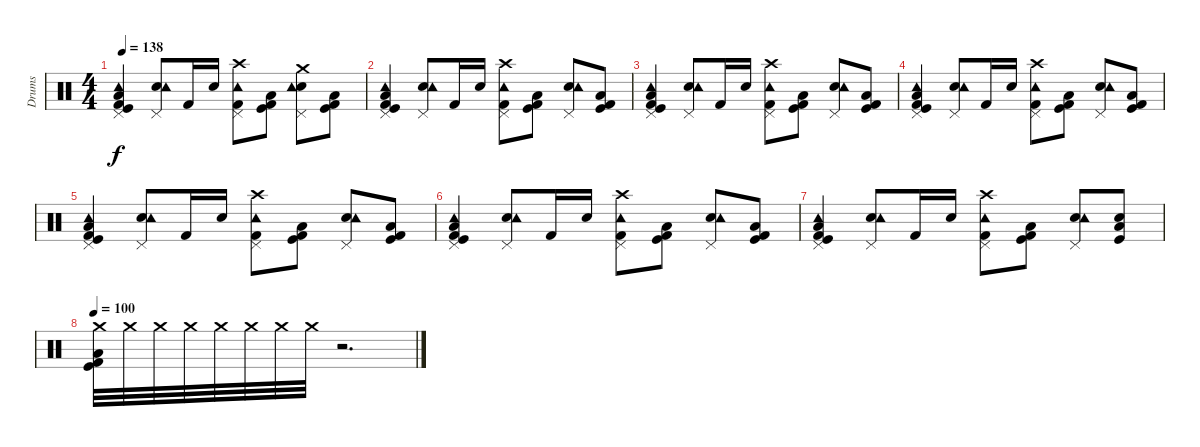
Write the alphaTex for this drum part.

\track ("Drums" "Drums") {instrument percussion}
\staff {score}
\articulation defaults
\ts (4 4)
\tempo 138
\clef neutral
\ks c
("Pedal Hi-Hat (hit)" "Kick (hit) 2" "Kick (hit)" "Low Floor Tom (hit)" "Tambourine (hit)").4{dy f} ("Pedal Hi-Hat (hit)" "Electric Snare (hit)" "Tambourine (hit)").8 "Kick (hit) 2".16 "Electric Snare (hit)".16 ("Crash high (hit)" "Pedal Hi-Hat (hit)" "Kick (hit) 2" "Tambourine (hit)").8 ("Kick (hit) 2" "Kick (hit)" "Low Floor Tom (hit)").8 ("Crash medium (hit)" "Pedal Hi-Hat (hit)" "Electric Snare (hit)" "Tambourine (hit)").8 ("Kick (hit) 2" "Low Floor Tom (hit)" "Kick (hit)").8 |
("Pedal Hi-Hat (hit)" "Kick (hit) 2" "Kick (hit)" "Low Floor Tom (hit)" "Tambourine (hit)").4 ("Pedal Hi-Hat (hit)" "Electric Snare (hit)" "Tambourine (hit)").8 "Kick (hit) 2".16 "Electric Snare (hit)".16 ("Crash high (hit)" "Pedal Hi-Hat (hit)" "Kick (hit) 2" "Tambourine (hit)").8 ("Kick (hit) 2" "Kick (hit)" "Low Floor Tom (hit)").8 ("Pedal Hi-Hat (hit)" "Electric Snare (hit)" "Tambourine (hit)").8 ("Kick (hit) 2" "Low Floor Tom (hit)" "Kick (hit)").8 |
("Pedal Hi-Hat (hit)" "Kick (hit) 2" "Kick (hit)" "Low Floor Tom (hit)" "Tambourine (hit)").4 ("Pedal Hi-Hat (hit)" "Electric Snare (hit)" "Tambourine (hit)").8 "Kick (hit) 2".16 "Electric Snare (hit)".16 ("Crash high (hit)" "Pedal Hi-Hat (hit)" "Kick (hit) 2" "Tambourine (hit)").8 ("Kick (hit) 2" "Kick (hit)" "Low Floor Tom (hit)").8 ("Pedal Hi-Hat (hit)" "Electric Snare (hit)" "Tambourine (hit)").8 ("Kick (hit) 2" "Low Floor Tom (hit)" "Kick (hit)").8 |
("Pedal Hi-Hat (hit)" "Kick (hit) 2" "Kick (hit)" "Low Floor Tom (hit)" "Tambourine (hit)").4 ("Pedal Hi-Hat (hit)" "Electric Snare (hit)" "Tambourine (hit)").8 "Kick (hit) 2".16 "Electric Snare (hit)".16 ("Crash high (hit)" "Pedal Hi-Hat (hit)" "Kick (hit) 2" "Tambourine (hit)").8 ("Kick (hit) 2" "Kick (hit)" "Low Floor Tom (hit)").8 ("Pedal Hi-Hat (hit)" "Electric Snare (hit)" "Tambourine (hit)").8 ("Kick (hit) 2" "Low Floor Tom (hit)" "Kick (hit)").8 |
("Pedal Hi-Hat (hit)" "Kick (hit) 2" "Kick (hit)" "Low Floor Tom (hit)" "Tambourine (hit)").4 ("Pedal Hi-Hat (hit)" "Electric Snare (hit)" "Tambourine (hit)").8 "Kick (hit) 2".16 "Electric Snare (hit)".16 ("Crash high (hit)" "Pedal Hi-Hat (hit)" "Kick (hit) 2" "Tambourine (hit)").8 ("Kick (hit) 2" "Kick (hit)" "Low Floor Tom (hit)").8 ("Pedal Hi-Hat (hit)" "Electric Snare (hit)" "Tambourine (hit)").8 ("Kick (hit) 2" "Low Floor Tom (hit)" "Kick (hit)").8 |
("Pedal Hi-Hat (hit)" "Kick (hit) 2" "Kick (hit)" "Low Floor Tom (hit)" "Tambourine (hit)").4 ("Pedal Hi-Hat (hit)" "Electric Snare (hit)" "Tambourine (hit)").8 "Kick (hit) 2".16 "Electric Snare (hit)".16 ("Crash high (hit)" "Pedal Hi-Hat (hit)" "Kick (hit) 2" "Tambourine (hit)").8 ("Kick (hit) 2" "Kick (hit)" "Low Floor Tom (hit)").8 ("Pedal Hi-Hat (hit)" "Electric Snare (hit)" "Tambourine (hit)").8 ("Kick (hit) 2" "Low Floor Tom (hit)" "Kick (hit)").8 |
("Pedal Hi-Hat (hit)" "Kick (hit) 2" "Kick (hit)" "Low Floor Tom (hit)" "Tambourine (hit)").4 ("Pedal Hi-Hat (hit)" "Electric Snare (hit)" "Tambourine (hit)").8 "Kick (hit) 2".16 "Electric Snare (hit)".16 ("Crash high (hit)" "Pedal Hi-Hat (hit)" "Kick (hit) 2" "Tambourine (hit)").8 ("Kick (hit) 2" "Kick (hit)" "Low Floor Tom (hit)").8 ("Pedal Hi-Hat (hit)" "Electric Snare (hit)" "Tambourine (hit)").8 ("Electric Snare (hit)" "Low Floor Tom (hit)" "Kick (hit)").8 |
\tempo 100
("Crash medium (hit)" "Kick (hit) 2" "Low Floor Tom (hit)" "Kick (hit)").32 "Crash medium (hit)".32 "Crash medium (hit)".32 "Crash medium (hit)".32 "Crash medium (hit)".32 "Crash medium (hit)".32 "Crash medium (hit)".32 "Crash medium (hit)".32 r.2{d}
